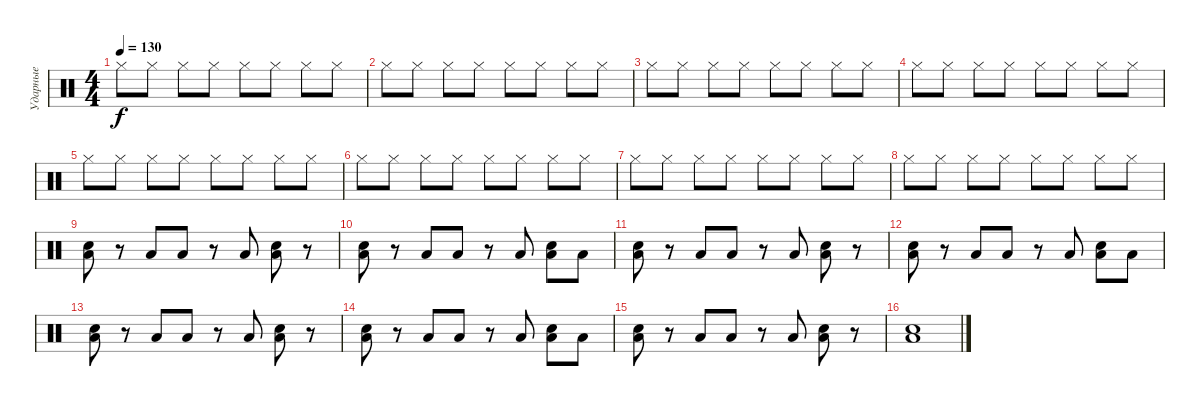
\track ("Ударные" "Ударные") {instrument percussion}
\staff {score}
\articulation defaults
\ts (4 4)
\tempo 130
\clef neutral
\ks c "Hi-Hat (closed)".8{dy f} "Hi-Hat (closed)".8 "Hi-Hat (closed)".8 "Hi-Hat (closed)".8 "Hi-Hat (closed)".8 "Hi-Hat (closed)".8 "Hi-Hat (closed)".8 "Hi-Hat (closed)".8
|
"Hi-Hat (closed)".8 "Hi-Hat (closed)".8 "Hi-Hat (closed)".8 "Hi-Hat (closed)".8 "Hi-Hat (closed)".8 "Hi-Hat (closed)".8 "Hi-Hat (closed)".8 "Hi-Hat (closed)".8 |
"Hi-Hat (closed)".8 "Hi-Hat (closed)".8 "Hi-Hat (closed)".8 "Hi-Hat (closed)".8 "Hi-Hat (closed)".8 "Hi-Hat (closed)".8 "Hi-Hat (closed)".8 "Hi-Hat (closed)".8 |
"Hi-Hat (closed)".8 "Hi-Hat (closed)".8 "Hi-Hat (closed)".8 "Hi-Hat (closed)".8 "Hi-Hat (closed)".8 "Hi-Hat (closed)".8 "Hi-Hat (closed)".8 "Hi-Hat (closed)".8 |
"Hi-Hat (closed)".8 "Hi-Hat (closed)".8 "Hi-Hat (closed)".8 "Hi-Hat (closed)".8 "Hi-Hat (closed)".8 "Hi-Hat (closed)".8 "Hi-Hat (closed)".8 "Hi-Hat (closed)".8 |
"Hi-Hat (closed)".8 "Hi-Hat (closed)".8 "Hi-Hat (closed)".8 "Hi-Hat (closed)".8 "Hi-Hat (closed)".8 "Hi-Hat (closed)".8 "Hi-Hat (closed)".8 "Hi-Hat (closed)".8 |
"Hi-Hat (closed)".8 "Hi-Hat (closed)".8 "Hi-Hat (closed)".8 "Hi-Hat (closed)".8 "Hi-Hat (closed)".8 "Hi-Hat (closed)".8 "Hi-Hat (closed)".8 "Hi-Hat (closed)".8 |
"Hi-Hat (closed)".8 "Hi-Hat (closed)".8 "Hi-Hat (closed)".8 "Hi-Hat (closed)".8 "Hi-Hat (closed)".8 "Hi-Hat (closed)".8 "Hi-Hat (closed)".8 "Hi-Hat (closed)".8 |
("Low Floor Tom (hit)" "Electric Snare (hit)").8 r.8 "Low Tom (hit)".8 "Low Floor Tom (hit)".8 r.8 "Low Tom (hit)".8 ("Low Floor Tom (hit)" "Electric Snare (hit)").8 r.8 |
("Low Floor Tom (hit)" "Electric Snare (hit)").8 r.8 "Low Tom (hit)".8 "Low Floor Tom (hit)".8 r.8 "Low Tom (hit)".8 ("Low Floor Tom (hit)" "Electric Snare (hit)").8 "Low Floor Tom (hit)".8 |
("Low Floor Tom (hit)" "Electric Snare (hit)").8 r.8 "Low Tom (hit)".8 "Low Floor Tom (hit)".8 r.8 "Low Tom (hit)".8 ("Low Floor Tom (hit)" "Electric Snare (hit)").8 r.8 |
("Low Floor Tom (hit)" "Electric Snare (hit)").8 r.8 "Low Tom (hit)".8 "Low Floor Tom (hit)".8 r.8 "Low Tom (hit)".8 ("Low Floor Tom (hit)" "Electric Snare (hit)").8 "Low Floor Tom (hit)".8 |
("Low Floor Tom (hit)" "Electric Snare (hit)").8 r.8 "Low Tom (hit)".8 "Low Floor Tom (hit)".8 r.8 "Low Tom (hit)".8 ("Low Floor Tom (hit)" "Electric Snare (hit)").8 r.8 |
("Low Floor Tom (hit)" "Electric Snare (hit)").8 r.8 "Low Tom (hit)".8 "Low Floor Tom (hit)".8 r.8 "Low Tom (hit)".8 ("Low Floor Tom (hit)" "Electric Snare (hit)").8 "Low Floor Tom (hit)".8 |
("Low Floor Tom (hit)" "Electric Snare (hit)").8 r.8 "Low Tom (hit)".8 "Low Floor Tom (hit)".8 r.8 "Low Tom (hit)".8 ("Low Floor Tom (hit)" "Electric Snare (hit)").8 r.8 |
("Low Floor Tom (hit)" "Electric Snare (hit)").1
